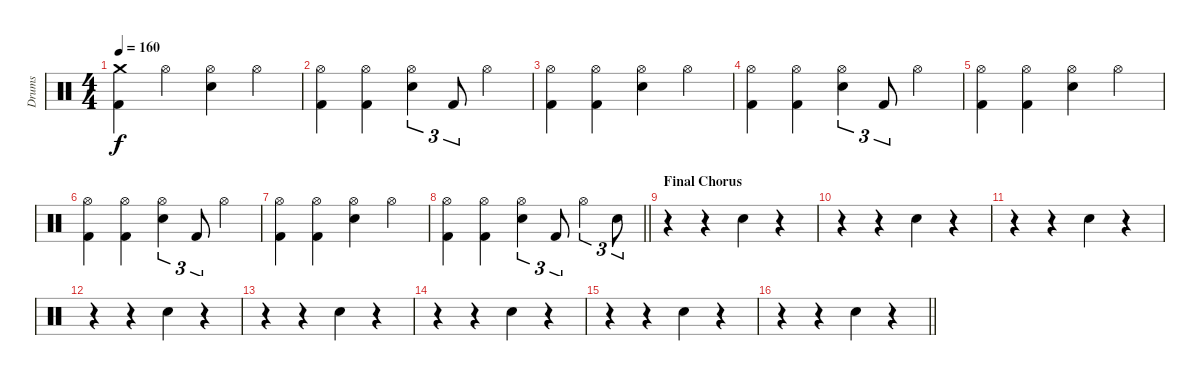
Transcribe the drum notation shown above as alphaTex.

\track ("Drums" "Drums") {instrument percussion}
\staff {score}
\articulation defaults
\ts (4 4)
\tempo 160
\clef neutral
\ks c
("Crash medium (hit)" "Kick (hit) 2").4{dy f} "Hi-Hat (open)".4 ("Hi-Hat (open)" "Electric Snare (hit)").4 "Hi-Hat (open)".4 |
("Hi-Hat (open)" "Kick (hit) 2").4 ("Hi-Hat (open)" "Kick (hit) 2").4 ("Hi-Hat (open)" "Electric Snare (hit)").4{tu (3 2)} "Kick (hit) 2".8{tu (3 2)} "Hi-Hat (open)".4 |
("Hi-Hat (open)" "Kick (hit) 2").4 ("Hi-Hat (open)" "Kick (hit) 2").4 ("Hi-Hat (open)" "Electric Snare (hit)").4 "Hi-Hat (open)".4 |
("Hi-Hat (open)" "Kick (hit) 2").4 ("Hi-Hat (open)" "Kick (hit) 2").4 ("Hi-Hat (open)" "Electric Snare (hit)").4{tu (3 2)} "Kick (hit) 2".8{tu (3 2)} "Hi-Hat (open)".4 |
("Hi-Hat (open)" "Kick (hit) 2").4 ("Hi-Hat (open)" "Kick (hit) 2").4 ("Hi-Hat (open)" "Electric Snare (hit)").4 "Hi-Hat (open)".4 |
("Hi-Hat (open)" "Kick (hit) 2").4 ("Hi-Hat (open)" "Kick (hit) 2").4 ("Hi-Hat (open)" "Electric Snare (hit)").4{tu (3 2)} "Kick (hit) 2".8{tu (3 2)} "Hi-Hat (open)".4 |
("Hi-Hat (open)" "Kick (hit) 2").4 ("Hi-Hat (open)" "Kick (hit) 2").4 ("Hi-Hat (open)" "Electric Snare (hit)").4 "Hi-Hat (open)".4 |
\barLineRight lightlight
("Hi-Hat (open)" "Kick (hit) 2").4 ("Hi-Hat (open)" "Kick (hit) 2").4 ("Hi-Hat (open)" "Electric Snare (hit)").4{tu (3 2)} "Kick (hit) 2".8{tu (3 2)} "Hi-Hat (open)".4{tu (3 2)} "Electric Snare (hit)".8{tu (3 2)} |
\section ("" "Final Chorus")
r.4 r.4 "Hand Clap (hit)".4 r.4 |
r.4 r.4 "Hand Clap (hit)".4 r.4 |
r.4 r.4 "Hand Clap (hit)".4 r.4 |
r.4 r.4 "Hand Clap (hit)".4 r.4 |
r.4 r.4 "Hand Clap (hit)".4 r.4 |
r.4 r.4 "Hand Clap (hit)".4 r.4 |
r.4 r.4 "Hand Clap (hit)".4 r.4 |
\barLineRight lightlight
r.4 r.4 "Hand Clap (hit)".4 r.4
